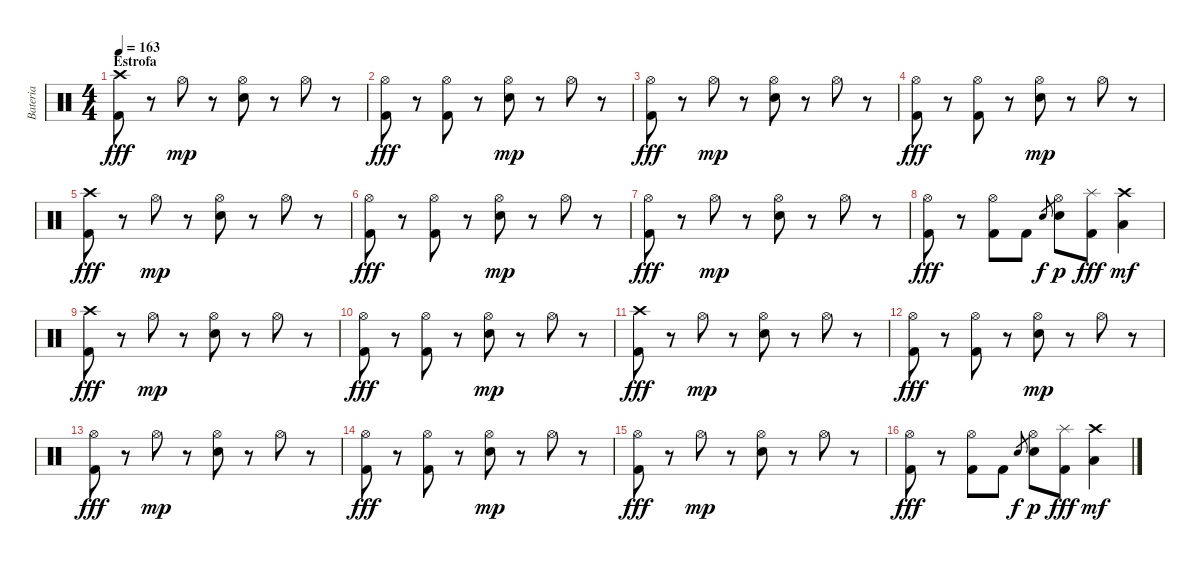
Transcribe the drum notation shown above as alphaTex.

\track ("Bateria" "Bateria") {instrument percussion}
\staff {score}
\articulation defaults
\ts (4 4)
\section ("" "Estrofa")
\tempo 163
\clef neutral
\ks c
("Crash high (hit)" "Kick (hit) 2").8{dy fff} r.8 "Hi-Hat (open)".8{dy mp} r.8 ("Hi-Hat (open)" "Electric Snare (hit)").8 r.8 "Hi-Hat (open)".8 r.8 |
("Hi-Hat (open)" "Kick (hit) 2").8{dy fff} r.8 ("Hi-Hat (open)" "Kick (hit) 2").8 r.8 ("Hi-Hat (open)" "Electric Snare (hit)").8{dy mp} r.8 "Hi-Hat (open)".8 r.8 |
("Hi-Hat (open)" "Kick (hit) 2").8{dy fff} r.8 "Hi-Hat (open)".8{dy mp} r.8 ("Hi-Hat (open)" "Electric Snare (hit)").8 r.8 "Hi-Hat (open)".8 r.8 |
("Hi-Hat (open)" "Kick (hit) 2").8{dy fff} r.8 ("Hi-Hat (open)" "Kick (hit) 2").8 r.8 ("Hi-Hat (open)" "Electric Snare (hit)").8{dy mp} r.8 "Hi-Hat (open)".8 r.8 |
("Crash high (hit)" "Kick (hit) 2").8{dy fff} r.8 "Hi-Hat (open)".8{dy mp} r.8 ("Hi-Hat (open)" "Electric Snare (hit)").8 r.8 "Hi-Hat (open)".8 r.8 |
("Hi-Hat (open)" "Kick (hit) 2").8{dy fff} r.8 ("Hi-Hat (open)" "Kick (hit) 2").8 r.8 ("Hi-Hat (open)" "Electric Snare (hit)").8{dy mp} r.8 "Hi-Hat (open)".8 r.8 |
("Hi-Hat (open)" "Kick (hit) 2").8{dy fff} r.8 "Hi-Hat (open)".8{dy mp} r.8 ("Hi-Hat (open)" "Electric Snare (hit)").8 r.8 "Hi-Hat (open)".8 r.8 |
("Hi-Hat (open)" "Kick (hit) 2").8{dy fff} r.8 ("Hi-Hat (open)" "Kick (hit) 2").8 "Kick (hit) 2".8 "Electric Snare (hit)".8{gr dy f} ("Hi-Hat (open)" "Electric Snare (hit)").8{dy p} ("Splash (hit)" "Kick (hit) 2").8{dy fff} ("Crash high (hit)" "Low Tom (hit)").4{dy mf} |
("Crash high (hit)" "Kick (hit) 2").8{dy fff} r.8 "Hi-Hat (open)".8{dy mp} r.8 ("Hi-Hat (open)" "Electric Snare (hit)").8 r.8 "Hi-Hat (open)".8 r.8 |
("Hi-Hat (open)" "Kick (hit) 2").8{dy fff} r.8 ("Hi-Hat (open)" "Kick (hit) 2").8 r.8 ("Hi-Hat (open)" "Electric Snare (hit)").8{dy mp} r.8 "Hi-Hat (open)".8 r.8 |
("Crash high (hit)" "Kick (hit) 2").8{dy fff} r.8 "Hi-Hat (open)".8{dy mp} r.8 ("Hi-Hat (open)" "Electric Snare (hit)").8 r.8 "Hi-Hat (open)".8 r.8 |
("Hi-Hat (open)" "Kick (hit) 2").8{dy fff} r.8 ("Hi-Hat (open)" "Kick (hit) 2").8 r.8 ("Hi-Hat (open)" "Electric Snare (hit)").8{dy mp} r.8 "Hi-Hat (open)".8 r.8 |
("Hi-Hat (open)" "Kick (hit) 2").8{dy fff} r.8 "Hi-Hat (open)".8{dy mp} r.8 ("Hi-Hat (open)" "Electric Snare (hit)").8 r.8 "Hi-Hat (open)".8 r.8 |
("Hi-Hat (open)" "Kick (hit) 2").8{dy fff} r.8 ("Hi-Hat (open)" "Kick (hit) 2").8 r.8 ("Hi-Hat (open)" "Electric Snare (hit)").8{dy mp} r.8 "Hi-Hat (open)".8 r.8 |
("Hi-Hat (open)" "Kick (hit) 2").8{dy fff} r.8 "Hi-Hat (open)".8{dy mp} r.8 ("Hi-Hat (open)" "Electric Snare (hit)").8 r.8 "Hi-Hat (open)".8 r.8 |
("Hi-Hat (open)" "Kick (hit) 2").8{dy fff} r.8 ("Hi-Hat (open)" "Kick (hit) 2").8 "Kick (hit) 2".8 "Electric Snare (hit)".8{gr dy f} ("Hi-Hat (open)" "Electric Snare (hit)").8{dy p} ("Splash (hit)" "Kick (hit) 2").8{dy fff} ("Crash high (hit)" "Low Tom (hit)").4{dy mf}
